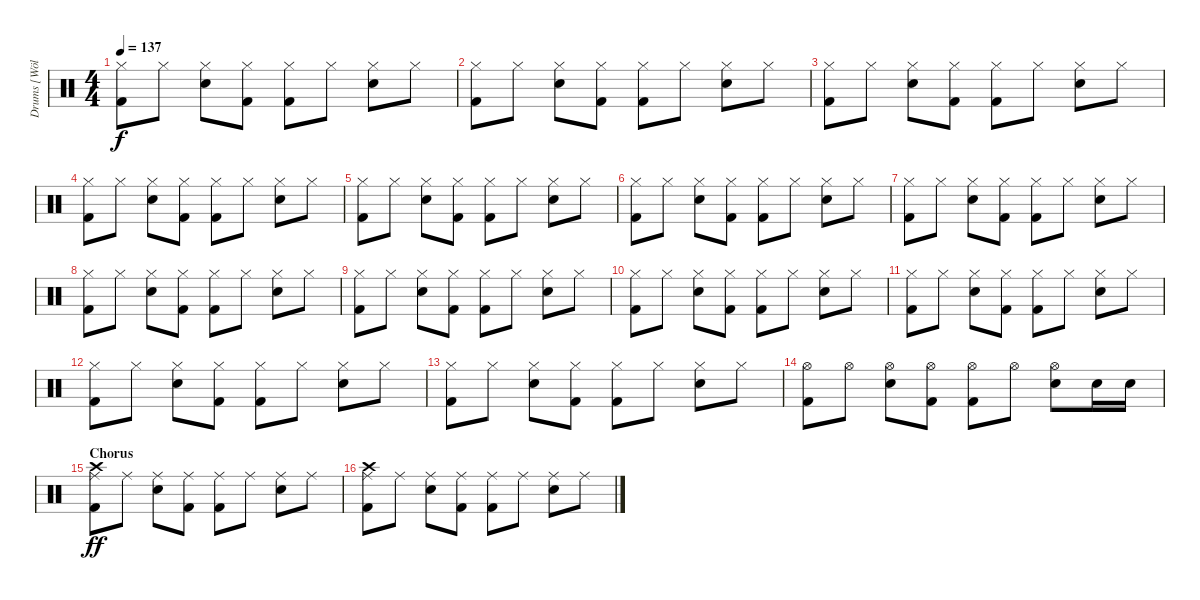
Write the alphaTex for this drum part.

\track ("Drums [Wölli]" "Drums [Wöl") {instrument percussion}
\staff {score}
\articulation defaults
\ts (4 4)
\tempo 137
\clef neutral
\ks c
("Hi-Hat (closed)" "Kick (hit) 2").8{dy f} "Hi-Hat (closed)".8 ("Hi-Hat (closed)" "Snare (hit) 2").8 ("Hi-Hat (closed)" "Kick (hit) 2").8 ("Hi-Hat (closed)" "Kick (hit) 2").8 "Hi-Hat (closed)".8 ("Hi-Hat (closed)" "Snare (hit) 2").8 "Hi-Hat (closed)".8 |
("Hi-Hat (closed)" "Kick (hit) 2").8 "Hi-Hat (closed)".8 ("Hi-Hat (closed)" "Snare (hit) 2").8 ("Hi-Hat (closed)" "Kick (hit) 2").8 ("Hi-Hat (closed)" "Kick (hit) 2").8 "Hi-Hat (closed)".8 ("Hi-Hat (closed)" "Snare (hit) 2").8 "Hi-Hat (closed)".8 |
("Hi-Hat (closed)" "Kick (hit) 2").8 "Hi-Hat (closed)".8 ("Hi-Hat (closed)" "Snare (hit) 2").8 ("Hi-Hat (closed)" "Kick (hit) 2").8 ("Hi-Hat (closed)" "Kick (hit) 2").8 "Hi-Hat (closed)".8 ("Hi-Hat (closed)" "Snare (hit) 2").8 "Hi-Hat (closed)".8 |
("Hi-Hat (closed)" "Kick (hit) 2").8 "Hi-Hat (closed)".8 ("Hi-Hat (closed)" "Snare (hit) 2").8 ("Hi-Hat (closed)" "Kick (hit) 2").8 ("Hi-Hat (closed)" "Kick (hit) 2").8 "Hi-Hat (closed)".8 ("Hi-Hat (closed)" "Snare (hit) 2").8 "Hi-Hat (closed)".8 |
("Hi-Hat (closed)" "Kick (hit) 2").8 "Hi-Hat (closed)".8 ("Hi-Hat (closed)" "Snare (hit) 2").8 ("Hi-Hat (closed)" "Kick (hit) 2").8 ("Hi-Hat (closed)" "Kick (hit) 2").8 "Hi-Hat (closed)".8 ("Hi-Hat (closed)" "Snare (hit) 2").8 "Hi-Hat (closed)".8 |
("Hi-Hat (closed)" "Kick (hit) 2").8 "Hi-Hat (closed)".8 ("Hi-Hat (closed)" "Snare (hit) 2").8 ("Hi-Hat (closed)" "Kick (hit) 2").8 ("Hi-Hat (closed)" "Kick (hit) 2").8 "Hi-Hat (closed)".8 ("Hi-Hat (closed)" "Snare (hit) 2").8 "Hi-Hat (closed)".8 |
("Hi-Hat (closed)" "Kick (hit) 2").8 "Hi-Hat (closed)".8 ("Hi-Hat (closed)" "Snare (hit) 2").8 ("Hi-Hat (closed)" "Kick (hit) 2").8 ("Hi-Hat (closed)" "Kick (hit) 2").8 "Hi-Hat (closed)".8 ("Hi-Hat (closed)" "Snare (hit) 2").8 "Hi-Hat (closed)".8 |
("Hi-Hat (closed)" "Kick (hit) 2").8 "Hi-Hat (closed)".8 ("Hi-Hat (closed)" "Snare (hit) 2").8 ("Hi-Hat (closed)" "Kick (hit) 2").8 ("Hi-Hat (closed)" "Kick (hit) 2").8 "Hi-Hat (closed)".8 ("Hi-Hat (closed)" "Snare (hit) 2").8 "Hi-Hat (closed)".8 |
("Hi-Hat (closed)" "Kick (hit) 2").8 "Hi-Hat (closed)".8 ("Hi-Hat (closed)" "Snare (hit) 2").8 ("Hi-Hat (closed)" "Kick (hit) 2").8 ("Hi-Hat (closed)" "Kick (hit) 2").8 "Hi-Hat (closed)".8 ("Hi-Hat (closed)" "Snare (hit) 2").8 "Hi-Hat (closed)".8 |
("Hi-Hat (closed)" "Kick (hit) 2").8 "Hi-Hat (closed)".8 ("Hi-Hat (closed)" "Snare (hit) 2").8 ("Hi-Hat (closed)" "Kick (hit) 2").8 ("Hi-Hat (closed)" "Kick (hit) 2").8 "Hi-Hat (closed)".8 ("Hi-Hat (closed)" "Snare (hit) 2").8 "Hi-Hat (closed)".8 |
("Hi-Hat (closed)" "Kick (hit) 2").8 "Hi-Hat (closed)".8 ("Hi-Hat (closed)" "Snare (hit) 2").8 ("Hi-Hat (closed)" "Kick (hit) 2").8 ("Hi-Hat (closed)" "Kick (hit) 2").8 "Hi-Hat (closed)".8 ("Hi-Hat (closed)" "Snare (hit) 2").8 "Hi-Hat (closed)".8 |
("Hi-Hat (closed)" "Kick (hit) 2").8 "Hi-Hat (closed)".8 ("Hi-Hat (closed)" "Snare (hit) 2").8 ("Hi-Hat (closed)" "Kick (hit) 2").8 ("Hi-Hat (closed)" "Kick (hit) 2").8 "Hi-Hat (closed)".8 ("Hi-Hat (closed)" "Snare (hit) 2").8 "Hi-Hat (closed)".8 |
("Hi-Hat (closed)" "Kick (hit) 2").8 "Hi-Hat (closed)".8 ("Hi-Hat (closed)" "Snare (hit) 2").8 ("Hi-Hat (closed)" "Kick (hit) 2").8 ("Hi-Hat (closed)" "Kick (hit) 2").8 "Hi-Hat (closed)".8 ("Hi-Hat (closed)" "Snare (hit) 2").8 "Hi-Hat (closed)".8 |
("Hi-Hat (open)" "Kick (hit) 2").8 "Hi-Hat (open)".8 ("Hi-Hat (open)" "Snare (hit) 2").8 ("Hi-Hat (open)" "Kick (hit) 2").8 ("Hi-Hat (open)" "Kick (hit) 2").8 "Hi-Hat (open)".8 ("Hi-Hat (open)" "Snare (hit) 2").8 "Snare (hit) 2".16 "Snare (hit) 2".16 |
\section ("" "Chorus")
("Ride (middle)" "Kick (hit) 2" "Crash high (hit)").8{dy ff} "Ride (middle)".8 ("Ride (middle)" "Snare (hit) 2").8 ("Ride (middle)" "Kick (hit) 2").8 ("Ride (middle)" "Kick (hit) 2").8 "Ride (middle)".8 ("Ride (middle)" "Snare (hit) 2").8 "Ride (middle)".8 |
("Ride (middle)" "Kick (hit) 2" "Crash high (hit)").8 "Ride (middle)".8 ("Ride (middle)" "Snare (hit) 2").8 ("Ride (middle)" "Kick (hit) 2").8 ("Ride (middle)" "Kick (hit) 2").8 "Ride (middle)".8 ("Ride (middle)" "Snare (hit) 2").8 "Ride (middle)".8
